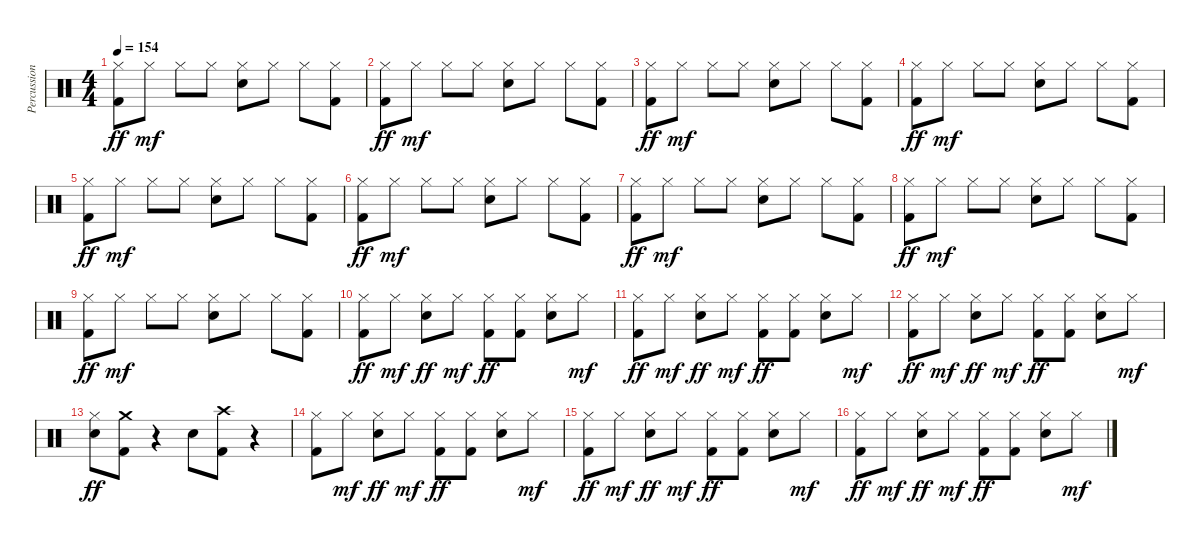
\track ("Percussions" "Percussion") {instrument percussion}
\staff {score}
\articulation defaults
\ts (4 4)
\tempo 154
\clef neutral
\ks c
("Hi-Hat (closed)" "Kick (hit) 2").8{dy ff} "Hi-Hat (closed)".8{dy mf} "Hi-Hat (closed)".8 "Hi-Hat (closed)".8 ("Hi-Hat (closed)" "Electric Snare (hit)").8 "Hi-Hat (closed)".8 "Hi-Hat (closed)".8 ("Hi-Hat (closed)" "Kick (hit) 2").8 |
("Hi-Hat (closed)" "Kick (hit) 2").8{dy ff} "Hi-Hat (closed)".8{dy mf} "Hi-Hat (closed)".8 "Hi-Hat (closed)".8 ("Hi-Hat (closed)" "Electric Snare (hit)").8 "Hi-Hat (closed)".8 "Hi-Hat (closed)".8 ("Hi-Hat (closed)" "Kick (hit) 2").8 |
("Hi-Hat (closed)" "Kick (hit) 2").8{dy ff} "Hi-Hat (closed)".8{dy mf} "Hi-Hat (closed)".8 "Hi-Hat (closed)".8 ("Hi-Hat (closed)" "Electric Snare (hit)").8 "Hi-Hat (closed)".8 "Hi-Hat (closed)".8 ("Hi-Hat (closed)" "Kick (hit) 2").8 |
("Hi-Hat (closed)" "Kick (hit) 2").8{dy ff} "Hi-Hat (closed)".8{dy mf} "Hi-Hat (closed)".8 "Hi-Hat (closed)".8 ("Hi-Hat (closed)" "Electric Snare (hit)").8 "Hi-Hat (closed)".8 "Hi-Hat (closed)".8 ("Hi-Hat (closed)" "Kick (hit) 2").8 |
("Hi-Hat (closed)" "Kick (hit) 2").8{dy ff} "Hi-Hat (closed)".8{dy mf} "Hi-Hat (closed)".8 "Hi-Hat (closed)".8 ("Hi-Hat (closed)" "Electric Snare (hit)").8 "Hi-Hat (closed)".8 "Hi-Hat (closed)".8 ("Hi-Hat (closed)" "Kick (hit) 2").8 |
("Hi-Hat (closed)" "Kick (hit) 2").8{dy ff} "Hi-Hat (closed)".8{dy mf} "Hi-Hat (closed)".8 "Hi-Hat (closed)".8 ("Hi-Hat (closed)" "Electric Snare (hit)").8 "Hi-Hat (closed)".8 "Hi-Hat (closed)".8 ("Hi-Hat (closed)" "Kick (hit) 2").8 |
("Hi-Hat (closed)" "Kick (hit) 2").8{dy ff} "Hi-Hat (closed)".8{dy mf} "Hi-Hat (closed)".8 "Hi-Hat (closed)".8 ("Hi-Hat (closed)" "Electric Snare (hit)").8 "Hi-Hat (closed)".8 "Hi-Hat (closed)".8 ("Hi-Hat (closed)" "Kick (hit) 2").8 |
("Hi-Hat (closed)" "Kick (hit) 2").8{dy ff} "Hi-Hat (closed)".8{dy mf} "Hi-Hat (closed)".8 "Hi-Hat (closed)".8 ("Hi-Hat (closed)" "Electric Snare (hit)").8 "Hi-Hat (closed)".8 "Hi-Hat (closed)".8 ("Hi-Hat (closed)" "Kick (hit) 2").8 |
("Hi-Hat (closed)" "Kick (hit) 2").8{dy ff} "Hi-Hat (closed)".8{dy mf} "Hi-Hat (closed)".8 "Hi-Hat (closed)".8 ("Hi-Hat (closed)" "Electric Snare (hit)").8 "Hi-Hat (closed)".8 "Hi-Hat (closed)".8 ("Hi-Hat (closed)" "Kick (hit) 2").8 |
("Hi-Hat (closed)" "Kick (hit) 2").8{dy ff volume 12} "Hi-Hat (closed)".8{dy mf} ("Hi-Hat (closed)" "Electric Snare (hit)").8{dy ff} "Hi-Hat (closed)".8{dy mf} ("Hi-Hat (closed)" "Kick (hit) 2").8{dy ff} ("Hi-Hat (closed)" "Kick (hit) 2").8 ("Hi-Hat (closed)" "Electric Snare (hit)").8 "Hi-Hat (closed)".8{dy mf} |
("Hi-Hat (closed)" "Kick (hit) 2").8{dy ff} "Hi-Hat (closed)".8{dy mf} ("Hi-Hat (closed)" "Electric Snare (hit)").8{dy ff} "Hi-Hat (closed)".8{dy mf} ("Hi-Hat (closed)" "Kick (hit) 2").8{dy ff} ("Hi-Hat (closed)" "Kick (hit) 2").8 ("Hi-Hat (closed)" "Electric Snare (hit)").8 "Hi-Hat (closed)".8{dy mf} |
("Hi-Hat (closed)" "Kick (hit) 2").8{dy ff} "Hi-Hat (closed)".8{dy mf} ("Hi-Hat (closed)" "Electric Snare (hit)").8{dy ff} "Hi-Hat (closed)".8{dy mf} ("Hi-Hat (closed)" "Kick (hit) 2").8{dy ff} ("Hi-Hat (closed)" "Kick (hit) 2").8 ("Hi-Hat (closed)" "Electric Snare (hit)").8 "Hi-Hat (closed)".8{dy mf} |
("Hi-Hat (closed)" "Electric Snare (hit)").8{dy ff} ("Crash medium (hit)" "Kick (hit) 2").8 r.4 "Electric Snare (hit)".8 ("Crash high (hit)" "Kick (hit) 2").8 r.4 |
("Hi-Hat (closed)" "Kick (hit) 2").8{volume 14} "Hi-Hat (closed)".8{dy mf} ("Hi-Hat (closed)" "Electric Snare (hit)").8{dy ff} "Hi-Hat (closed)".8{dy mf} ("Hi-Hat (closed)" "Kick (hit) 2").8{dy ff} ("Hi-Hat (closed)" "Kick (hit) 2").8 ("Hi-Hat (closed)" "Electric Snare (hit)").8 "Hi-Hat (closed)".8{dy mf} |
("Hi-Hat (closed)" "Kick (hit) 2").8{dy ff} "Hi-Hat (closed)".8{dy mf} ("Hi-Hat (closed)" "Electric Snare (hit)").8{dy ff} "Hi-Hat (closed)".8{dy mf} ("Hi-Hat (closed)" "Kick (hit) 2").8{dy ff} ("Hi-Hat (closed)" "Kick (hit) 2").8 ("Hi-Hat (closed)" "Electric Snare (hit)").8 "Hi-Hat (closed)".8{dy mf} |
("Hi-Hat (closed)" "Kick (hit) 2").8{dy ff} "Hi-Hat (closed)".8{dy mf} ("Hi-Hat (closed)" "Electric Snare (hit)").8{dy ff} "Hi-Hat (closed)".8{dy mf} ("Hi-Hat (closed)" "Kick (hit) 2").8{dy ff} ("Hi-Hat (closed)" "Kick (hit) 2").8 ("Hi-Hat (closed)" "Electric Snare (hit)").8 "Hi-Hat (closed)".8{dy mf}
